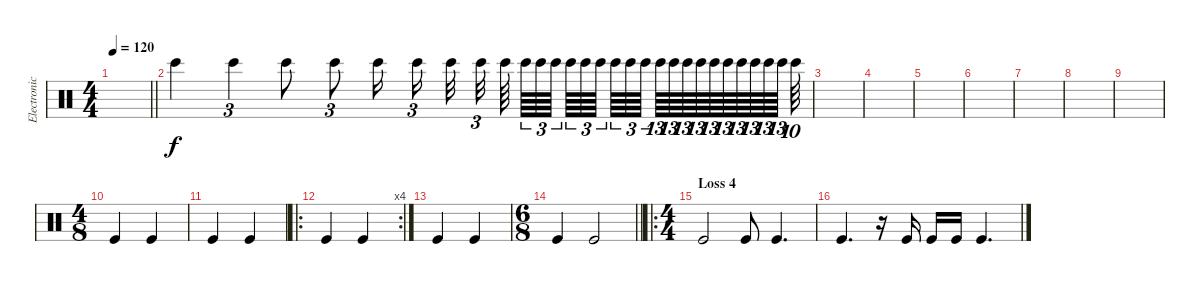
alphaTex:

\track ("Electronic Drums" "Electronic") {instrument percussion}
\staff {score}
\articulation defaults
\ts (4 4)
\tempo 120
\clef neutral
\barLineRight lightlight
\ks c
|
"Bongo High (hit)".4 "Bongo High (hit)".4{tu (3 2)} "Bongo High (hit)".8 "Bongo High (hit)".8{tu (3 2)} "Bongo High (hit)".16{beam splitsecondary} "Bongo High (hit)".16{tu (3 2)} "Bongo High (hit)".32 "Bongo High (hit)".32{tu (3 2) beam splitsecondary} "Bongo High (hit)".64{beam splitsecondary} "Bongo High (hit)".64{tu (3 2)} "Bongo High (hit)".64{tu (3 2)} "Bongo High (hit)".64{tu (3 2) beam splitsecondary} "Bongo High (hit)".64{tu (3 2)} "Bongo High (hit)".64{tu (3 2)} "Bongo High (hit)".64{tu (3 2) beam splitsecondary} "Bongo High (hit)".64{tu (3 2)} "Bongo High (hit)".64{tu (3 2)} "Bongo High (hit)".64{tu (3 2) beam splitsecondary} "Bongo High (hit)".64{tu (13 8)} "Bongo High (hit)".64{tu (13 8)} "Bongo High (hit)".64{tu (13 8)} "Bongo High (hit)".64{tu (13 8)} "Bongo High (hit)".64{tu (13 8)} "Bongo High (hit)".64{tu (13 8)} "Bongo High (hit)".64{tu (13 8)} "Bongo High (hit)".64{tu (13 8)} "Bongo High (hit)".64{tu (13 8)} "Bongo High (hit)".64{tu (13 8)} "Bongo High (hit)".64{tu (10 8)} |
|
|
|
|
|
|
|
\ts (4 8)
"Kick (hit)".4 "Kick (hit)".4 |
"Kick (hit)".4 "Kick (hit)".4 |
\ro
\rc 4 "Kick (hit)".4 "Kick (hit)".4
|
"Kick (hit)".4 "Kick (hit)".4 |
\ts (6 8)
\barLineRight lightlight "Kick (hit)".4 "Kick (hit)".2
|
\ro
\ts (4 4)
\section ("" "Loss 4")
"Kick (hit)".2 "Kick (hit)".8 "Kick (hit)".4{d} |
"Kick (hit)".4{d} r.16 "Kick (hit)".16 "Kick (hit)".16 "Kick (hit)".16 "Kick (hit)".4{d}
